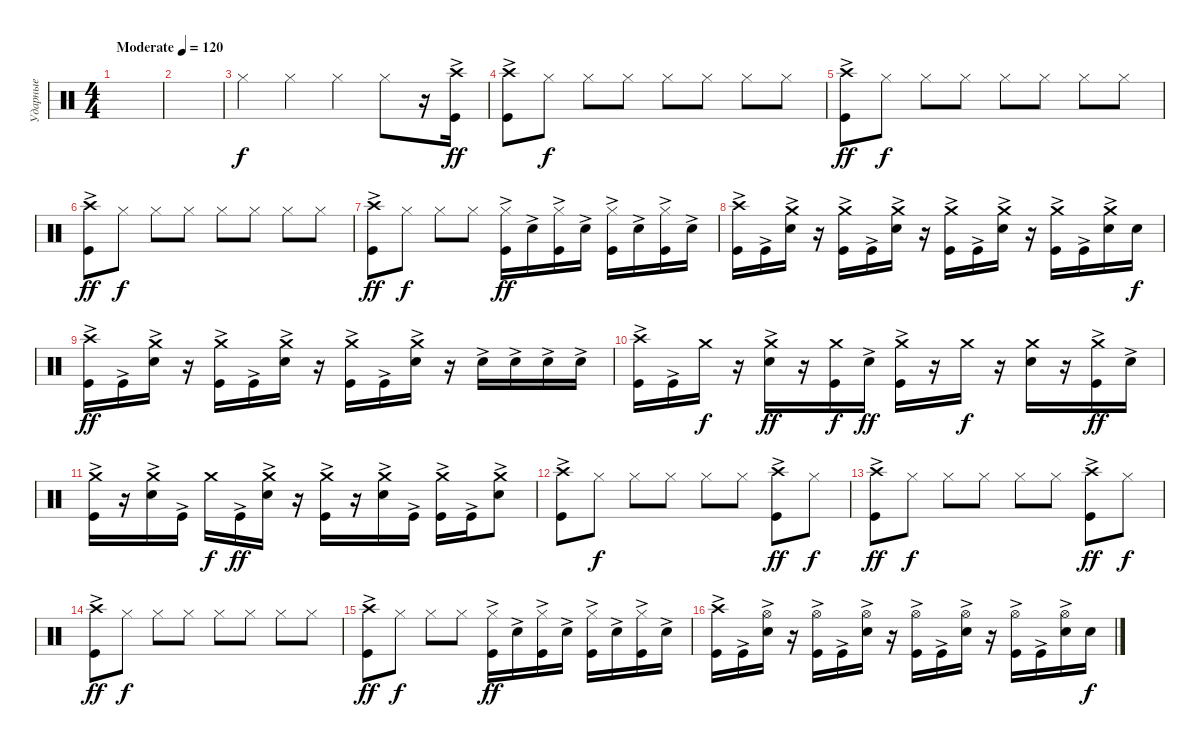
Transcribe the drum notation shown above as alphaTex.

\track ("Ударные" "Ударные") {instrument percussion}
\staff {score}
\articulation defaults
\ts (4 4)
\tempo (120 "Moderate")
\clef neutral
\ks c
|
|
"Hi-Hat (closed)".4 "Hi-Hat (closed)".4 "Hi-Hat (closed)".4 "Hi-Hat (closed)".8 r.16 ("Kick (hit)"{ac} "Crash high (hit)").16{dy ff} |
("Kick (hit)"{ac} "Crash high (hit)").8 "Hi-Hat (closed)".8{dy f} "Hi-Hat (closed)".8 "Hi-Hat (closed)".8 "Hi-Hat (closed)".8 "Hi-Hat (closed)".8 "Hi-Hat (closed)".8 "Hi-Hat (closed)".8 |
("Kick (hit)"{ac} "Crash high (hit)").8{dy ff} "Hi-Hat (closed)".8{dy f} "Hi-Hat (closed)".8 "Hi-Hat (closed)".8 "Hi-Hat (closed)".8 "Hi-Hat (closed)".8 "Hi-Hat (closed)".8 "Hi-Hat (closed)".8 |
("Kick (hit)"{ac} "Crash high (hit)").8{dy ff} "Hi-Hat (closed)".8{dy f} "Hi-Hat (closed)".8 "Hi-Hat (closed)".8 "Hi-Hat (closed)".8 "Hi-Hat (closed)".8 "Hi-Hat (closed)".8 "Hi-Hat (closed)".8 |
("Kick (hit)"{ac} "Crash high (hit)").8{dy ff} "Hi-Hat (closed)".8{dy f} "Hi-Hat (closed)".8 "Hi-Hat (closed)".8 ("Kick (hit)"{ac} "Hi-Hat (closed)").16{dy ff} "Snare (hit) 2"{ac}.16 ("Kick (hit)"{ac} "Hi-Hat (closed)").16 "Snare (hit) 2"{ac}.16 ("Kick (hit)"{ac} "Hi-Hat (closed)").16 "Snare (hit) 2"{ac}.16 ("Kick (hit)"{ac} "Hi-Hat (closed)").16 "Snare (hit) 2"{ac}.16 |
("Crash high (hit)" "Kick (hit)"{ac}).16 "Kick (hit)"{ac}.16 ("Crash medium (hit)" "Snare (hit) 2"{ac}).16 r.16 ("Crash medium (hit)" "Kick (hit)"{ac}).16 "Kick (hit)"{ac}.16 ("Crash medium (hit)" "Snare (hit) 2"{ac}).16 r.16 ("Crash medium (hit)" "Kick (hit)"{ac}).16 "Kick (hit)"{ac}.16 ("Crash medium (hit)" "Snare (hit) 2"{ac}).16 r.16 ("Crash medium (hit)" "Kick (hit)"{ac}).16 "Kick (hit)"{ac}.16 ("Crash medium (hit)" "Snare (hit) 2"{ac}).16 "Snare (hit) 2".16{dy f} |
("Crash high (hit)" "Kick (hit)"{ac}).16{dy ff} "Kick (hit)"{ac}.16 ("Crash medium (hit)" "Snare (hit) 2"{ac}).16 r.16 ("Crash medium (hit)" "Kick (hit)"{ac}).16 "Kick (hit)"{ac}.16 ("Crash medium (hit)" "Snare (hit) 2"{ac}).16 r.16 ("Crash medium (hit)" "Kick (hit)"{ac}).16 "Kick (hit)"{ac}.16 ("Crash medium (hit)" "Snare (hit) 2"{ac}).16 r.16 "Snare (hit) 2"{ac}.16 "Snare (hit) 2"{ac}.16 "Snare (hit) 2"{ac}.16 "Snare (hit) 2"{ac}.16 |
("Crash high (hit)" "Kick (hit)"{ac}).16 "Kick (hit)"{ac}.16 "Crash medium (hit)".16{dy f} r.16 ("Crash medium (hit)" "Snare (hit) 2"{ac}).16{dy ff} r.16 ("Crash medium (hit)" "Kick (hit)").16{dy f} "Snare (hit) 2"{ac}.16{dy ff} ("Crash medium (hit)" "Kick (hit)"{ac}).16 r.16 "Crash medium (hit)".16{dy f} r.16 ("Crash medium (hit)" "Snare (hit) 2").16 r.16 ("Crash medium (hit)" "Kick (hit)"{ac}).16{dy ff} "Snare (hit) 2"{ac}.16 |
("Crash medium (hit)" "Kick (hit)"{ac}).16 r.16 ("Crash medium (hit)" "Snare (hit) 2"{ac}).16 "Kick (hit)"{ac}.16 "Crash medium (hit)".16{dy f} "Kick (hit)"{ac}.16{dy ff} ("Crash medium (hit)" "Snare (hit) 2"{ac}).16 r.16 ("Crash medium (hit)" "Kick (hit)"{ac}).16 r.16 ("Crash medium (hit)" "Snare (hit) 2"{ac}).16 "Kick (hit)"{ac}.16 ("Crash medium (hit)" "Kick (hit)"{ac}).16 "Kick (hit)"{ac}.16 ("Crash medium (hit)" "Snare (hit) 2"{ac}).8 |
("Crash high (hit)" "Kick (hit)"{ac}).8 "Hi-Hat (closed)".8{dy f} "Hi-Hat (closed)".8 "Hi-Hat (closed)".8 "Hi-Hat (closed)".8 "Hi-Hat (closed)".8 ("Crash high (hit)" "Kick (hit)"{ac}).8{dy ff} "Hi-Hat (closed)".8{dy f} |
("Crash high (hit)" "Kick (hit)"{ac}).8{dy ff} "Hi-Hat (closed)".8{dy f} "Hi-Hat (closed)".8 "Hi-Hat (closed)".8 "Hi-Hat (closed)".8 "Hi-Hat (closed)".8 ("Crash high (hit)" "Kick (hit)"{ac}).8{dy ff} "Hi-Hat (closed)".8{dy f} |
("Crash high (hit)" "Kick (hit)"{ac}).8{dy ff} "Hi-Hat (closed)".8{dy f} "Hi-Hat (closed)".8 "Hi-Hat (closed)".8 "Hi-Hat (closed)".8 "Hi-Hat (closed)".8 "Hi-Hat (closed)".8 "Hi-Hat (closed)".8 |
("Kick (hit)"{ac} "Crash high (hit)").8{dy ff} "Hi-Hat (closed)".8{dy f} "Hi-Hat (closed)".8 "Hi-Hat (closed)".8 ("Kick (hit)"{ac} "Hi-Hat (closed)").16{dy ff} "Snare (hit) 2"{ac}.16 ("Kick (hit)"{ac} "Hi-Hat (closed)").16 "Snare (hit) 2"{ac}.16 ("Kick (hit)"{ac} "Hi-Hat (closed)").16 "Snare (hit) 2"{ac}.16 ("Kick (hit)"{ac} "Hi-Hat (closed)").16 "Snare (hit) 2"{ac}.16 |
("Crash high (hit)" "Kick (hit)"{ac}).16 "Kick (hit)"{ac}.16 ("Hi-Hat (open)" "Snare (hit) 2"{ac}).16 r.16 ("Hi-Hat (open)" "Kick (hit)"{ac}).16 "Kick (hit)"{ac}.16 ("Hi-Hat (open)" "Snare (hit) 2"{ac}).16 r.16 ("Hi-Hat (open)" "Kick (hit)"{ac}).16 "Kick (hit)"{ac}.16 ("Hi-Hat (open)" "Snare (hit) 2"{ac}).16 r.16 ("Hi-Hat (open)" "Kick (hit)"{ac}).16 "Kick (hit)"{ac}.16 ("Hi-Hat (open)" "Snare (hit) 2"{ac}).16 "Snare (hit) 2".16{dy f}
